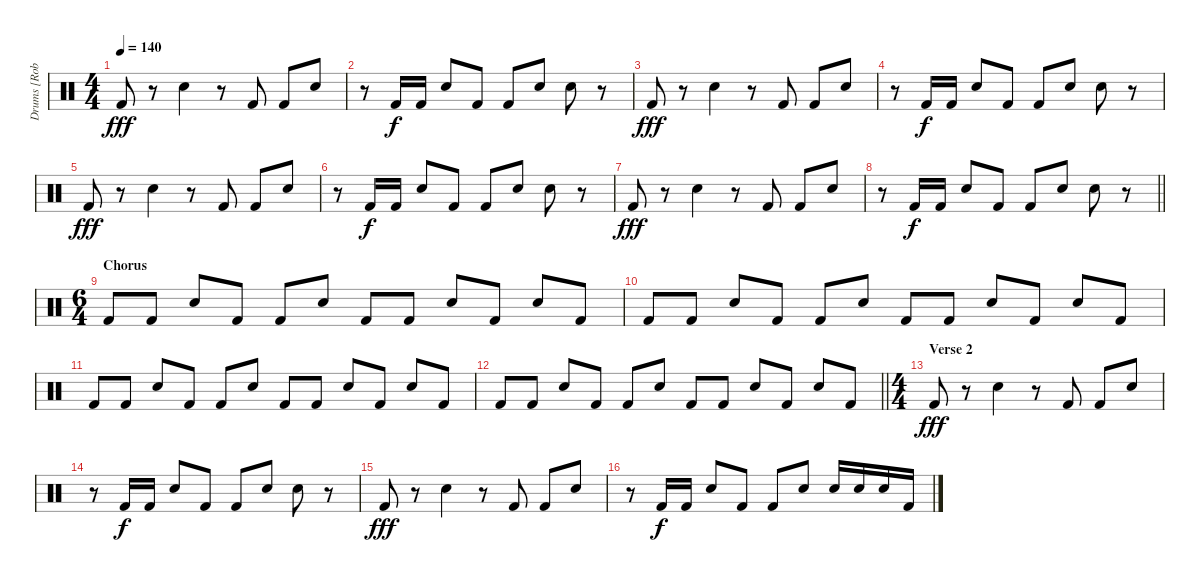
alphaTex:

\track ("Drums [Rob Bourdon]" "Drums [Rob") {instrument percussion}
\staff {score}
\articulation defaults
\ts (4 4)
\tempo 140
\clef neutral
\ks c "Kick (hit) 2".8{dy fff}
r.8 "Snare (hit) 2".4 r.8 "Kick (hit) 2".8 "Kick (hit) 2".8 "Snare (hit) 2".8 |
r.8 "Kick (hit) 2".16{dy f} "Kick (hit) 2".16 "Snare (hit) 2".8 "Kick (hit) 2".8 "Kick (hit) 2".8 "Snare (hit) 2".8 "Snare (hit) 2".8 r.8 |
"Kick (hit) 2".8{dy fff} r.8 "Snare (hit) 2".4 r.8 "Kick (hit) 2".8 "Kick (hit) 2".8 "Snare (hit) 2".8 |
r.8 "Kick (hit) 2".16{dy f} "Kick (hit) 2".16 "Snare (hit) 2".8 "Kick (hit) 2".8 "Kick (hit) 2".8 "Snare (hit) 2".8 "Snare (hit) 2".8 r.8 |
"Kick (hit) 2".8{dy fff} r.8 "Snare (hit) 2".4 r.8 "Kick (hit) 2".8 "Kick (hit) 2".8 "Snare (hit) 2".8 |
r.8 "Kick (hit) 2".16{dy f} "Kick (hit) 2".16 "Snare (hit) 2".8 "Kick (hit) 2".8 "Kick (hit) 2".8 "Snare (hit) 2".8 "Snare (hit) 2".8 r.8 |
"Kick (hit) 2".8{dy fff} r.8 "Snare (hit) 2".4 r.8 "Kick (hit) 2".8 "Kick (hit) 2".8 "Snare (hit) 2".8 |
\barLineRight lightlight
r.8 "Kick (hit) 2".16{dy f} "Kick (hit) 2".16 "Snare (hit) 2".8 "Kick (hit) 2".8 "Kick (hit) 2".8 "Snare (hit) 2".8 "Snare (hit) 2".8 r.8 |
\ts (6 4)
\section ("" "Chorus")
"Kick (hit) 2".8 "Kick (hit) 2".8 "Snare (hit) 2".8 "Kick (hit) 2".8 "Kick (hit) 2".8 "Snare (hit) 2".8 "Kick (hit) 2".8 "Kick (hit) 2".8 "Snare (hit) 2".8 "Kick (hit) 2".8 "Snare (hit) 2".8 "Kick (hit) 2".8 |
"Kick (hit) 2".8 "Kick (hit) 2".8 "Snare (hit) 2".8 "Kick (hit) 2".8 "Kick (hit) 2".8 "Snare (hit) 2".8 "Kick (hit) 2".8 "Kick (hit) 2".8 "Snare (hit) 2".8 "Kick (hit) 2".8 "Snare (hit) 2".8 "Kick (hit) 2".8 |
"Kick (hit) 2".8 "Kick (hit) 2".8 "Snare (hit) 2".8 "Kick (hit) 2".8 "Kick (hit) 2".8 "Snare (hit) 2".8 "Kick (hit) 2".8 "Kick (hit) 2".8 "Snare (hit) 2".8 "Kick (hit) 2".8 "Snare (hit) 2".8 "Kick (hit) 2".8 |
\barLineRight lightlight "Kick (hit) 2".8 "Kick (hit) 2".8 "Snare (hit) 2".8 "Kick (hit) 2".8 "Kick (hit) 2".8 "Snare (hit) 2".8 "Kick (hit) 2".8 "Kick (hit) 2".8 "Snare (hit) 2".8 "Kick (hit) 2".8 "Snare (hit) 2".8 "Kick (hit) 2".8
|
\ts (4 4)
\section ("" "Verse 2")
"Kick (hit) 2".8{dy fff} r.8 "Snare (hit) 2".4 r.8 "Kick (hit) 2".8 "Kick (hit) 2".8 "Snare (hit) 2".8 |
r.8 "Kick (hit) 2".16{dy f} "Kick (hit) 2".16 "Snare (hit) 2".8 "Kick (hit) 2".8 "Kick (hit) 2".8 "Snare (hit) 2".8 "Snare (hit) 2".8 r.8 |
"Kick (hit) 2".8{dy fff} r.8 "Snare (hit) 2".4 r.8 "Kick (hit) 2".8 "Kick (hit) 2".8 "Snare (hit) 2".8 |
r.8 "Kick (hit) 2".16{dy f} "Kick (hit) 2".16 "Snare (hit) 2".8 "Kick (hit) 2".8 "Kick (hit) 2".8 "Snare (hit) 2".8 "Snare (hit) 2".16 "Snare (hit) 2".16 "Snare (hit) 2".16 "Kick (hit) 2".16
